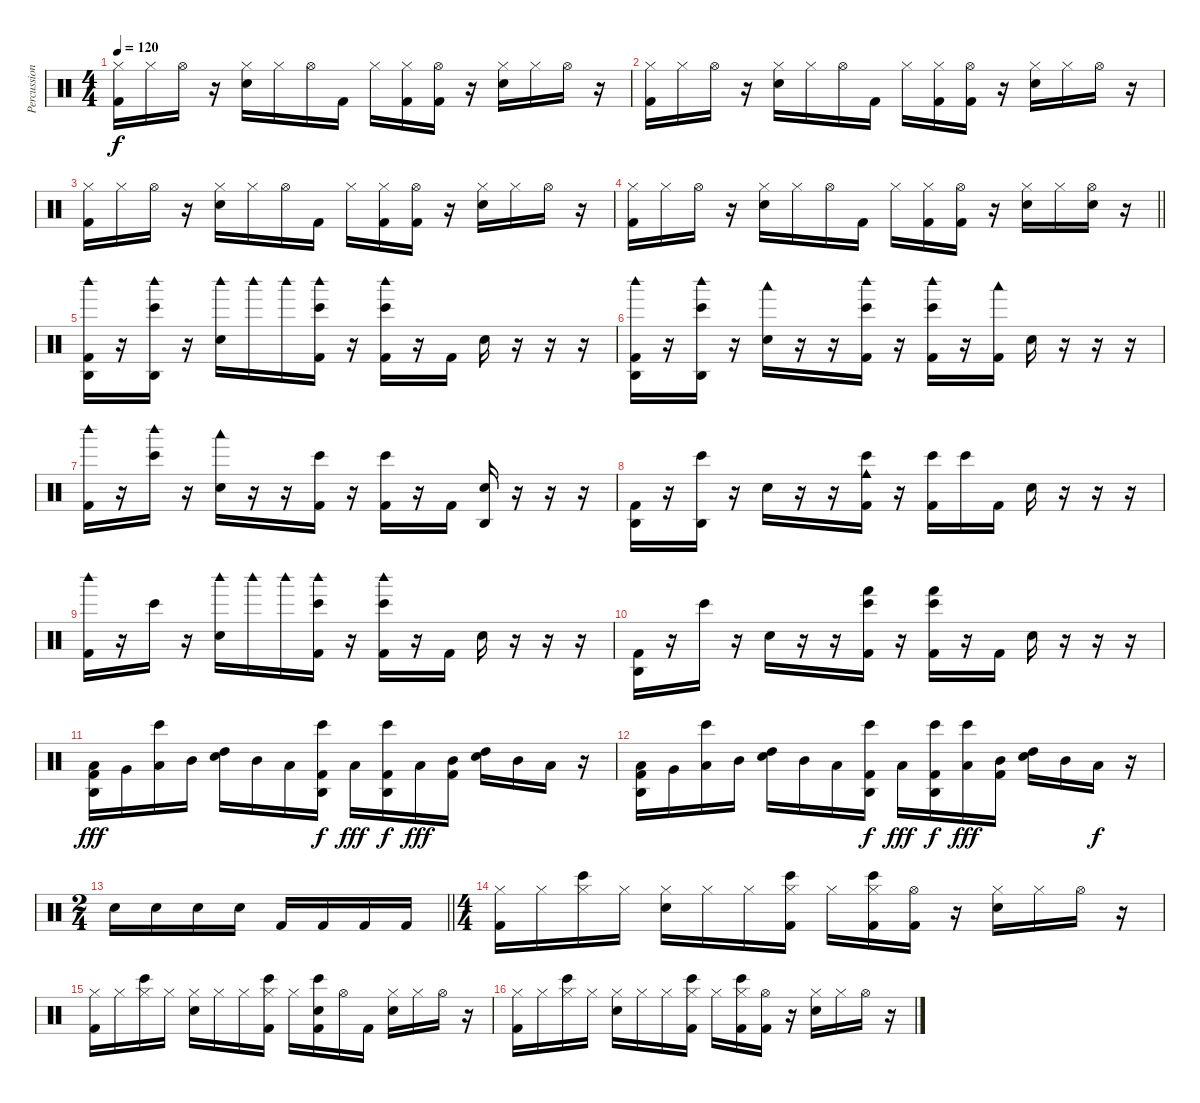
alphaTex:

\track ("Percussion" "Percussion") {instrument percussion}
\staff {score}
\articulation defaults
\ts (4 4)
\tempo 120
\clef neutral
\ks c
("Hi-Hat (closed)" "Kick (hit) 2").16{dy f} "Hi-Hat (closed)".16 "Hi-Hat (open)".16 r.16 ("Hi-Hat (closed)" "Snare (hit) 2").16 "Hi-Hat (closed)".16 "Hi-Hat (open)".16 "Kick (hit) 2".16 "Hi-Hat (closed)".16 ("Hi-Hat (closed)" "Kick (hit) 2").16 ("Hi-Hat (open)" "Kick (hit) 2").16 r.16 ("Hi-Hat (closed)" "Snare (hit) 2").16 "Hi-Hat (closed)".16 "Hi-Hat (open)".16 r.16 |
("Hi-Hat (closed)" "Kick (hit) 2").16 "Hi-Hat (closed)".16 "Hi-Hat (open)".16 r.16 ("Hi-Hat (closed)" "Snare (hit) 2").16 "Hi-Hat (closed)".16 "Hi-Hat (open)".16 "Kick (hit) 2".16 "Hi-Hat (closed)".16 ("Hi-Hat (closed)" "Kick (hit) 2").16 ("Hi-Hat (open)" "Kick (hit) 2").16 r.16 ("Hi-Hat (closed)" "Snare (hit) 2").16 "Hi-Hat (closed)".16 "Hi-Hat (open)".16 r.16 |
("Hi-Hat (closed)" "Kick (hit) 2").16 "Hi-Hat (closed)".16 "Hi-Hat (open)".16 r.16 ("Hi-Hat (closed)" "Snare (hit) 2").16 "Hi-Hat (closed)".16 "Hi-Hat (open)".16 "Kick (hit) 2".16 "Hi-Hat (closed)".16 ("Hi-Hat (closed)" "Kick (hit) 2").16 ("Hi-Hat (open)" "Kick (hit) 2").16 r.16 ("Hi-Hat (closed)" "Snare (hit) 2").16 "Hi-Hat (closed)".16 "Hi-Hat (open)".16 r.16 |
\barLineRight lightlight
("Hi-Hat (closed)" "Kick (hit) 2").16 "Hi-Hat (closed)".16 "Hi-Hat (open)".16 r.16 ("Hi-Hat (closed)" "Snare (hit) 2").16 "Hi-Hat (closed)".16 "Hi-Hat (open)".16 "Kick (hit) 2".16 "Hi-Hat (closed)".16 ("Hi-Hat (closed)" "Kick (hit) 2").16 ("Hi-Hat (open)" "Kick (hit) 2").16 r.16 ("Hi-Hat (closed)" "Snare (hit) 2").16 "Hi-Hat (closed)".16 ("Hi-Hat (open)" "Snare (hit) 2").16 r.16 |
("Woodblock high (hit)" "Agogo high (hit)" "Kick (hit) 2").16 r.16 ("Woodblock high (hit)" "Agogo high (hit)" "Bongo High (hit)").16 r.16 ("Woodblock high (hit)" "Snare (hit) 2").16 "Woodblock high (hit)".16 "Woodblock high (hit)".16 ("Woodblock high (hit)" "Bongo High (hit)" "Kick (hit) 2").16 r.16 ("Woodblock high (hit)" "Bongo High (hit)" "Kick (hit) 2").16 r.16 "Kick (hit) 2".16 "Snare (hit) 2".16 r.16 r.16 r.16 |
("Woodblock high (hit)" "Agogo high (hit)" "Kick (hit) 2").16 r.16 ("Woodblock high (hit)" "Agogo high (hit)" "Bongo High (hit)").16 r.16 ("Woodblock low (hit)" "Snare (hit) 2").16 r.16 r.16 ("Woodblock high (hit)" "Bongo High (hit)" "Kick (hit) 2").16 r.16 ("Woodblock high (hit)" "Bongo High (hit)" "Kick (hit) 2").16 r.16 ("Woodblock low (hit)" "Kick (hit) 2").16 "Snare (hit) 2".16 r.16 r.16 r.16 |
("Woodblock high (hit)" "Kick (hit) 2").16 r.16 ("Woodblock high (hit)" "Bongo High (hit)").16 r.16 ("Woodblock low (hit)" "Snare (hit) 2").16 r.16 r.16 ("Bongo High (hit)" "Kick (hit) 2").16 r.16 ("Bongo High (hit)" "Kick (hit) 2").16 r.16 "Kick (hit) 2".16 ("Agogo high (hit)" "Snare (hit) 2").16 r.16 r.16 r.16 |
("Agogo high (hit)" "Kick (hit) 2").16 r.16 ("Agogo high (hit)" "Bongo High (hit)").16 r.16 "Snare (hit) 2".16 r.16 r.16 ("Cowbell medium (hit)" "Bongo High (hit)" "Kick (hit) 2").16 r.16 ("Bongo High (hit)" "Kick (hit) 2").16 "Bongo High (hit)".16 "Kick (hit) 2".16 "Snare (hit) 2".16 r.16 r.16 r.16 |
("Woodblock high (hit)" "Kick (hit) 2").16 r.16 "Bongo High (hit)".16 r.16 ("Woodblock high (hit)" "Snare (hit) 2").16 "Woodblock high (hit)".16 "Woodblock high (hit)".16 ("Woodblock high (hit)" "Bongo High (hit)" "Kick (hit) 2").16 r.16 ("Woodblock high (hit)" "Bongo High (hit)" "Kick (hit) 2").16 r.16 "Kick (hit) 2".16 "Snare (hit) 2".16 r.16 r.16 r.16 |
("Agogo high (hit)" "Kick (hit) 2").16 r.16 "Bongo High (hit)".16 r.16 "Snare (hit) 2".16 r.16 r.16 ("Hand (hit)" "Bongo High (hit)" "Kick (hit) 2").16 r.16 ("Hand (hit)" "Bongo High (hit)" "Kick (hit) 2").16 r.16 "Kick (hit) 2".16 "Snare (hit) 2".16 r.16 r.16 r.16 |
("Agogo high (hit)" "Low Floor Tom (hit)" "Kick (hit) 2").16{dy fff} "Very Low Tom (hit)".16 ("Low Tom (hit)" "Bongo High (hit)").16 "Mid Tom (hit)".16 ("High Tom (hit)" "Snare (hit) 2").16 "Mid Tom (hit)".16 "Low Tom (hit)".16 ("Agogo high (hit)" "Bongo High (hit)" "Kick (hit) 2").16{dy f} "Low Tom (hit)".16{dy fff} ("Agogo high (hit)" "Bongo High (hit)" "Kick (hit) 2").16{dy f} "Low Tom (hit)".16{dy fff} ("Mid Tom (hit)" "Kick (hit) 2").16 ("High Tom (hit)" "Snare (hit) 2").16 "Mid Tom (hit)".16 "Low Tom (hit)".16 r.16 |
("Agogo high (hit)" "Low Floor Tom (hit)" "Kick (hit) 2").16 "Very Low Tom (hit)".16 ("Low Tom (hit)" "Bongo High (hit)").16 "Mid Tom (hit)".16 ("High Tom (hit)" "Snare (hit) 2").16 "Mid Tom (hit)".16 "Low Tom (hit)".16 ("Agogo high (hit)" "Bongo High (hit)" "Kick (hit) 2").16{dy f} "Low Tom (hit)".16{dy fff} ("Agogo high (hit)" "Bongo High (hit)" "Kick (hit) 2").16{dy f} ("Low Tom (hit)" "Bongo High (hit)").16{dy fff} ("Mid Tom (hit)" "Kick (hit) 2").16 ("High Tom (hit)" "Snare (hit) 2").16 "Mid Tom (hit)".16 "Low Tom (hit)".16{dy f} r.16 |
\ts (2 4)
\barLineRight lightlight "Snare (hit) 2".16 "Snare (hit) 2".16 "Snare (hit) 2".16 "Snare (hit) 2".16 "Kick (hit) 2".16 "Kick (hit) 2".16 "Kick (hit) 2".16 "Kick (hit) 2".16
|
\ts (4 4)
("Hi-Hat (closed)" "Kick (hit) 2").16 "Hi-Hat (closed)".16 ("Hi-Hat (closed)" "Bongo High (hit)").16 "Hi-Hat (closed)".16 ("Hi-Hat (closed)" "Snare (hit) 2").16 "Hi-Hat (closed)".16 "Hi-Hat (closed)".16 ("Hi-Hat (closed)" "Bongo High (hit)" "Kick (hit) 2").16 "Hi-Hat (closed)".16 ("Hi-Hat (closed)" "Bongo High (hit)" "Kick (hit) 2").16 ("Hi-Hat (open)" "Kick (hit) 2").16 r.16 ("Hi-Hat (closed)" "Snare (hit) 2").16 "Hi-Hat (closed)".16 "Hi-Hat (open)".16 r.16 |
("Hi-Hat (closed)" "Kick (hit) 2").16 "Hi-Hat (closed)".16 ("Hi-Hat (closed)" "Bongo High (hit)").16 "Hi-Hat (closed)".16 ("Hi-Hat (closed)" "Snare (hit) 2").16 "Hi-Hat (closed)".16 "Hi-Hat (closed)".16 ("Hi-Hat (closed)" "Bongo High (hit)" "Kick (hit) 2").16 "Hi-Hat (closed)".16 ("Snare (hit)" "Bongo High (hit)" "Kick (hit) 2").16 "Hi-Hat (open)".16 "Kick (hit) 2".16 ("Hi-Hat (closed)" "Snare (hit) 2").16 "Hi-Hat (closed)".16 "Hi-Hat (open)".16 r.16 |
("Hi-Hat (closed)" "Kick (hit) 2").16 "Hi-Hat (closed)".16 ("Hi-Hat (closed)" "Bongo High (hit)").16 "Hi-Hat (closed)".16 ("Hi-Hat (closed)" "Snare (hit) 2").16 "Hi-Hat (closed)".16 "Hi-Hat (closed)".16 ("Hi-Hat (closed)" "Bongo High (hit)" "Kick (hit) 2").16 "Hi-Hat (closed)".16 ("Hi-Hat (closed)" "Bongo High (hit)" "Kick (hit) 2").16 ("Hi-Hat (open)" "Kick (hit) 2").16 r.16 ("Hi-Hat (closed)" "Snare (hit) 2").16 "Hi-Hat (closed)".16 "Hi-Hat (open)".16 r.16
